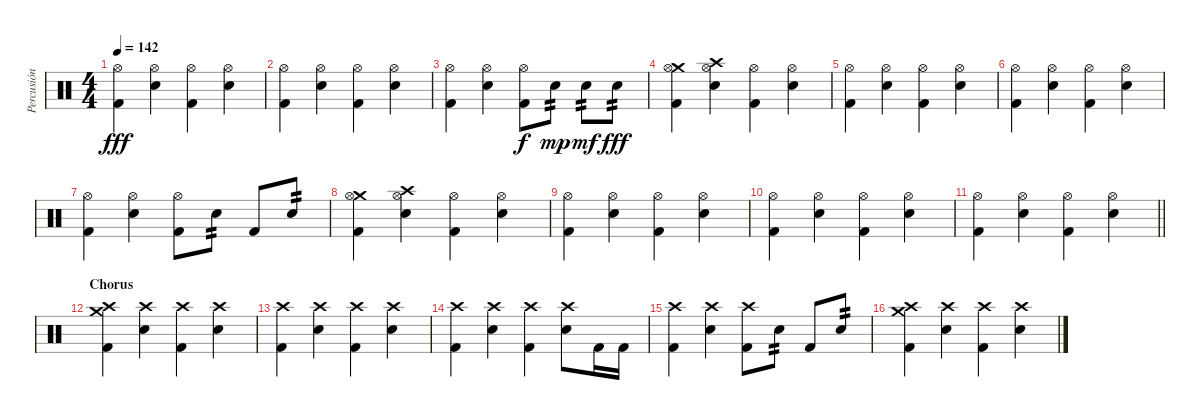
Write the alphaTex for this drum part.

\track ("Percusión" "Percusión") {instrument percussion}
\staff {score}
\articulation defaults
\ts (4 4)
\tempo 142
\clef neutral
\ks c
("Hi-Hat (open)" "Kick (hit) 2").4{dy fff} ("Hi-Hat (open)" "Electric Snare (hit)").4 ("Hi-Hat (open)" "Kick (hit) 2").4 ("Hi-Hat (open)" "Electric Snare (hit)").4 |
("Hi-Hat (open)" "Kick (hit) 2").4 ("Hi-Hat (open)" "Electric Snare (hit)").4 ("Hi-Hat (open)" "Kick (hit) 2").4 ("Hi-Hat (open)" "Electric Snare (hit)").4 |
("Hi-Hat (open)" "Kick (hit) 2").4 ("Hi-Hat (open)" "Electric Snare (hit)").4 ("Hi-Hat (open)" "Kick (hit) 2").8{dy f} "Electric Snare (hit)".8{tp 2 dy mp} "Electric Snare (hit)".8{tp 2 dy mf} "Electric Snare (hit)".8{tp 2 dy fff} |
("Crash medium (hit)" "Hi-Hat (open)" "Kick (hit) 2").4 ("Crash high (hit)" "Hi-Hat (open)" "Electric Snare (hit)").4 ("Hi-Hat (open)" "Kick (hit) 2").4 ("Hi-Hat (open)" "Electric Snare (hit)").4 |
("Hi-Hat (open)" "Kick (hit) 2").4 ("Hi-Hat (open)" "Electric Snare (hit)").4 ("Hi-Hat (open)" "Kick (hit) 2").4 ("Hi-Hat (open)" "Electric Snare (hit)").4 |
("Hi-Hat (open)" "Kick (hit) 2").4 ("Hi-Hat (open)" "Electric Snare (hit)").4 ("Hi-Hat (open)" "Kick (hit) 2").4 ("Hi-Hat (open)" "Electric Snare (hit)").4 |
("Hi-Hat (open)" "Kick (hit) 2").4 ("Hi-Hat (open)" "Electric Snare (hit)").4 ("Hi-Hat (open)" "Kick (hit) 2").8 "Electric Snare (hit)".8{tp 2} "Kick (hit) 2".8 "Electric Snare (hit)".8{tp 2} |
("Crash medium (hit)" "Hi-Hat (open)" "Kick (hit) 2").4 ("Crash high (hit)" "Hi-Hat (open)" "Electric Snare (hit)").4 ("Hi-Hat (open)" "Kick (hit) 2").4 ("Hi-Hat (open)" "Electric Snare (hit)").4 |
("Hi-Hat (open)" "Kick (hit) 2").4 ("Hi-Hat (open)" "Electric Snare (hit)").4 ("Hi-Hat (open)" "Kick (hit) 2").4 ("Hi-Hat (open)" "Electric Snare (hit)").4 |
("Hi-Hat (open)" "Kick (hit) 2").4 ("Hi-Hat (open)" "Electric Snare (hit)").4 ("Hi-Hat (open)" "Kick (hit) 2").4 ("Hi-Hat (open)" "Electric Snare (hit)").4 |
\barLineRight lightlight
("Hi-Hat (open)" "Kick (hit) 2").4 ("Hi-Hat (open)" "Electric Snare (hit)").4 ("Hi-Hat (open)" "Kick (hit) 2").4 ("Hi-Hat (open)" "Electric Snare (hit)").4 |
\section ("" "Chorus")
("Crash medium (hit)" "Crash high (hit)" "Kick (hit) 2").4 ("Crash high (hit)" "Electric Snare (hit)").4 ("Crash high (hit)" "Kick (hit) 2").4 ("Crash high (hit)" "Electric Snare (hit)").4 |
("Crash high (hit)" "Kick (hit) 2").4 ("Crash high (hit)" "Electric Snare (hit)").4 ("Crash high (hit)" "Kick (hit) 2").4 ("Crash high (hit)" "Electric Snare (hit)").4 |
("Crash high (hit)" "Kick (hit) 2").4 ("Crash high (hit)" "Electric Snare (hit)").4 ("Crash high (hit)" "Kick (hit) 2").4 ("Crash high (hit)" "Electric Snare (hit)").8 "Kick (hit) 2".16 "Kick (hit) 2".16 |
("Crash high (hit)" "Kick (hit) 2").4 ("Crash high (hit)" "Electric Snare (hit)").4 ("Crash high (hit)" "Kick (hit) 2").8 "Electric Snare (hit)".8{tp 2} "Kick (hit) 2".8 "Electric Snare (hit)".8{tp 2} |
("Crash medium (hit)" "Crash high (hit)" "Kick (hit) 2").4 ("Crash high (hit)" "Electric Snare (hit)").4 ("Crash high (hit)" "Kick (hit) 2").4 ("Crash high (hit)" "Electric Snare (hit)").4
